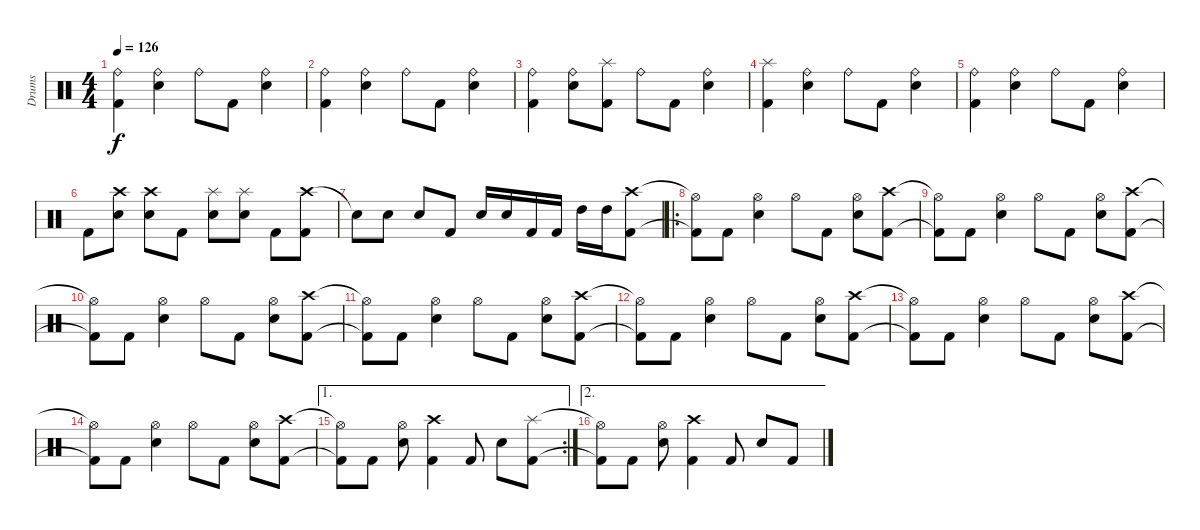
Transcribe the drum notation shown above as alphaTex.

\track ("Drums" "Drums") {instrument percussion}
\staff {score}
\articulation defaults
\ts (4 4)
\tempo 126
\clef neutral
\ks c
("Ride (bell)" "Kick (hit) 2").4{dy f} ("Ride (bell)" "Snare (hit) 2").4 "Ride (bell)".8 "Kick (hit) 2".8 ("Ride (bell)" "Snare (hit) 2").4 |
("Ride (bell)" "Kick (hit) 2").4 ("Ride (bell)" "Snare (hit) 2").4 "Ride (bell)".8 "Kick (hit) 2".8 ("Ride (bell)" "Snare (hit) 2").4 |
("Ride (bell)" "Kick (hit) 2").4 ("Ride (bell)" "Snare (hit) 2").8 ("Splash (hit)" "Kick (hit) 2").8 "Ride (bell)".8 "Kick (hit) 2".8 ("Ride (bell)" "Snare (hit) 2").4 |
("Splash (hit)" "Kick (hit) 2").4 ("Ride (bell)" "Snare (hit) 2").4 "Ride (bell)".8 "Kick (hit) 2".8 ("Ride (bell)" "Snare (hit) 2").4 |
("Ride (bell)" "Kick (hit) 2").4 ("Ride (bell)" "Snare (hit) 2").4 "Ride (bell)".8 "Kick (hit) 2".8 ("Ride (bell)" "Snare (hit) 2").4 |
"Kick (hit) 2".8 ("Crash high (hit)" "Snare (hit) 2").8 ("Crash high (hit)" "Snare (hit) 2").8 "Kick (hit) 2".8 ("Splash (hit)" "Snare (hit) 2").8 ("Splash (hit)" "Snare (hit) 2").8 "Kick (hit) 2".8 ("Crash high (hit)" "Kick (hit) 2").8 |
"Snare (hit)"{t}.8 "Snare (hit) 2".8 "Snare (hit) 2".8 "Kick (hit) 2".8 "Snare (hit) 2".16 "Snare (hit) 2".16 "Kick (hit) 2".16 "Kick (hit) 2".16 "High Tom (hit)".16 "High Tom (hit)".16 ("Crash high (hit)" "Kick (hit) 2").8 |
\ro
("Hi-Hat (open)"{t} "Kick (hit) 2"{t}).8 "Kick (hit) 2".8 ("Hi-Hat (open)" "Snare (hit) 2").4 "Hi-Hat (open)".8 "Kick (hit) 2".8 ("Hi-Hat (open)" "Snare (hit) 2").8 ("Crash high (hit)" "Kick (hit) 2").8 |
("Hi-Hat (open)"{t} "Kick (hit) 2"{t}).8 "Kick (hit) 2".8 ("Hi-Hat (open)" "Snare (hit) 2").4 "Hi-Hat (open)".8 "Kick (hit) 2".8 ("Hi-Hat (open)" "Snare (hit) 2").8 ("Crash high (hit)" "Kick (hit) 2").8 |
("Hi-Hat (open)"{t} "Kick (hit) 2"{t}).8 "Kick (hit) 2".8 ("Hi-Hat (open)" "Snare (hit) 2").4 "Hi-Hat (open)".8 "Kick (hit) 2".8 ("Hi-Hat (open)" "Snare (hit) 2").8 ("Crash high (hit)" "Kick (hit) 2").8 |
("Hi-Hat (open)"{t} "Kick (hit) 2"{t}).8 "Kick (hit) 2".8 ("Hi-Hat (open)" "Snare (hit) 2").4 "Hi-Hat (open)".8 "Kick (hit) 2".8 ("Hi-Hat (open)" "Snare (hit) 2").8 ("Crash high (hit)" "Kick (hit) 2").8 |
("Hi-Hat (open)"{t} "Kick (hit) 2"{t}).8 "Kick (hit) 2".8 ("Hi-Hat (open)" "Snare (hit) 2").4 "Hi-Hat (open)".8 "Kick (hit) 2".8 ("Hi-Hat (open)" "Snare (hit) 2").8 ("Crash high (hit)" "Kick (hit) 2").8 |
("Hi-Hat (open)"{t} "Kick (hit) 2"{t}).8 "Kick (hit) 2".8 ("Hi-Hat (open)" "Snare (hit) 2").4 "Hi-Hat (open)".8 "Kick (hit) 2".8 ("Hi-Hat (open)" "Snare (hit) 2").8 ("Crash high (hit)" "Kick (hit) 2").8 |
("Hi-Hat (open)"{t} "Kick (hit) 2"{t}).8 "Kick (hit) 2".8 ("Hi-Hat (open)" "Snare (hit) 2").4 "Hi-Hat (open)".8 "Kick (hit) 2".8 ("Hi-Hat (open)" "Snare (hit) 2").8 ("Crash high (hit)" "Kick (hit) 2").8 |
\ae 1
\rc 2
("Hi-Hat (open)"{t} "Kick (hit) 2"{t}).8 "Kick (hit) 2".8 ("Hi-Hat (open)" "Snare (hit) 2").8 ("Crash high (hit)" "Kick (hit) 2").4 "Kick (hit) 2".8 "Snare (hit) 2".8 ("Splash (hit)" "Kick (hit) 2").8 |
\ae 2
("Hi-Hat (open)"{t} "Kick (hit) 2"{t}).8 "Kick (hit) 2".8 ("Hi-Hat (open)" "Snare (hit) 2").8 ("Crash high (hit)" "Kick (hit) 2").4 "Kick (hit) 2".8 "Snare (hit) 2".8 "Kick (hit) 2".8
